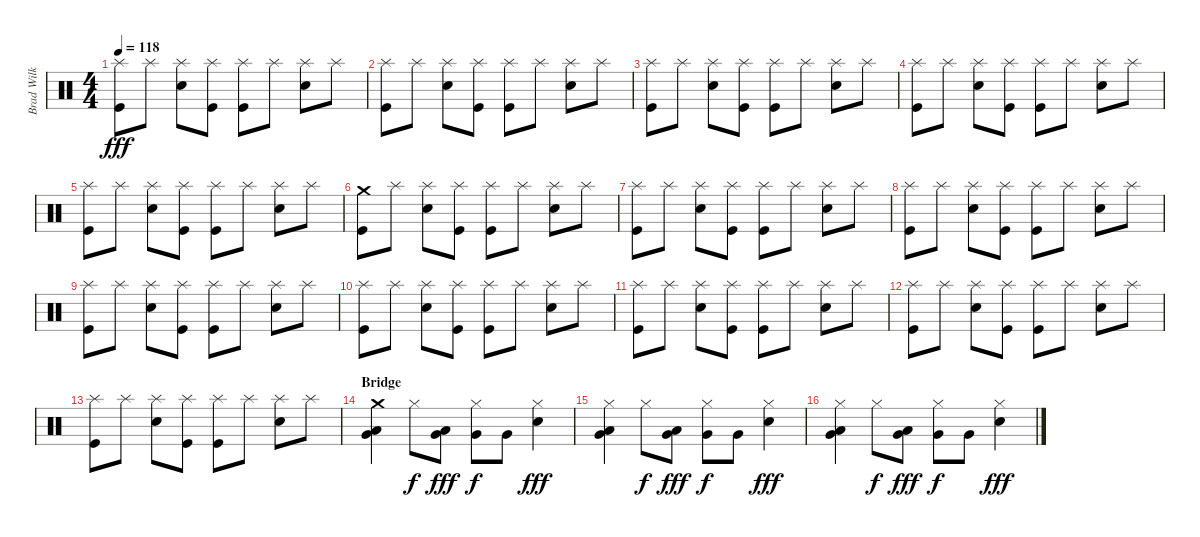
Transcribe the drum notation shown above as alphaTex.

\track ("Brad Wilk - Drums" "Brad Wilk ") {instrument percussion}
\staff {score}
\articulation defaults
\ts (4 4)
\tempo 118
\clef neutral
\ks c
("Splash (hit)" "Kick (hit)").8{dy fff} "Splash (hit)".8 ("Splash (hit)" "Snare (hit) 2").8 ("Splash (hit)" "Kick (hit)").8 ("Splash (hit)" "Kick (hit)").8 "Splash (hit)".8 ("Splash (hit)" "Snare (hit) 2").8 "Splash (hit)".8 |
("Splash (hit)" "Kick (hit)").8 "Splash (hit)".8 ("Splash (hit)" "Snare (hit) 2").8 ("Splash (hit)" "Kick (hit)").8 ("Splash (hit)" "Kick (hit)").8 "Splash (hit)".8 ("Splash (hit)" "Snare (hit) 2").8 "Splash (hit)".8 |
("Splash (hit)" "Kick (hit)").8 "Splash (hit)".8 ("Splash (hit)" "Snare (hit) 2").8 ("Splash (hit)" "Kick (hit)").8 ("Splash (hit)" "Kick (hit)").8 "Splash (hit)".8 ("Splash (hit)" "Snare (hit) 2").8 "Splash (hit)".8 |
("Splash (hit)" "Kick (hit)").8 "Splash (hit)".8 ("Splash (hit)" "Snare (hit) 2").8 ("Splash (hit)" "Kick (hit)").8 ("Splash (hit)" "Kick (hit)").8 "Splash (hit)".8 ("Splash (hit)" "Snare (hit) 2").8 "Splash (hit)".8 |
("Splash (hit)" "Kick (hit)").8 "Splash (hit)".8 ("Splash (hit)" "Snare (hit) 2").8 ("Splash (hit)" "Kick (hit)").8 ("Splash (hit)" "Kick (hit)").8 "Splash (hit)".8 ("Splash (hit)" "Snare (hit) 2").8 "Splash (hit)".8 |
("Crash medium (hit)" "Kick (hit)").8 "Splash (hit)".8 ("Splash (hit)" "Snare (hit) 2").8 ("Splash (hit)" "Kick (hit)").8 ("Splash (hit)" "Kick (hit)").8 "Splash (hit)".8 ("Splash (hit)" "Snare (hit) 2").8 "Splash (hit)".8 |
("Splash (hit)" "Kick (hit)").8 "Splash (hit)".8 ("Splash (hit)" "Snare (hit) 2").8 ("Splash (hit)" "Kick (hit)").8 ("Splash (hit)" "Kick (hit)").8 "Splash (hit)".8 ("Splash (hit)" "Snare (hit) 2").8 "Splash (hit)".8 |
("Splash (hit)" "Kick (hit)").8 "Splash (hit)".8 ("Splash (hit)" "Snare (hit) 2").8 ("Splash (hit)" "Kick (hit)").8 ("Splash (hit)" "Kick (hit)").8 "Splash (hit)".8 ("Splash (hit)" "Snare (hit) 2").8 "Splash (hit)".8 |
("Splash (hit)" "Kick (hit)").8 "Splash (hit)".8 ("Splash (hit)" "Snare (hit) 2").8 ("Splash (hit)" "Kick (hit)").8 ("Splash (hit)" "Kick (hit)").8 "Splash (hit)".8 ("Splash (hit)" "Snare (hit) 2").8 "Splash (hit)".8 |
("Splash (hit)" "Kick (hit)").8 "Splash (hit)".8 ("Splash (hit)" "Snare (hit) 2").8 ("Splash (hit)" "Kick (hit)").8 ("Splash (hit)" "Kick (hit)").8 "Splash (hit)".8 ("Splash (hit)" "Snare (hit) 2").8 "Splash (hit)".8 |
("Splash (hit)" "Kick (hit)").8 "Splash (hit)".8 ("Splash (hit)" "Snare (hit) 2").8 ("Splash (hit)" "Kick (hit)").8 ("Splash (hit)" "Kick (hit)").8 "Splash (hit)".8 ("Splash (hit)" "Snare (hit) 2").8 "Splash (hit)".8 |
("Splash (hit)" "Kick (hit)").8 "Splash (hit)".8 ("Splash (hit)" "Snare (hit) 2").8 ("Splash (hit)" "Kick (hit)").8 ("Splash (hit)" "Kick (hit)").8 "Splash (hit)".8 ("Splash (hit)" "Snare (hit) 2").8 "Splash (hit)".8 |
("Splash (hit)" "Kick (hit)").8 "Splash (hit)".8 ("Splash (hit)" "Snare (hit) 2").8 ("Splash (hit)" "Kick (hit)").8 ("Splash (hit)" "Kick (hit)").8 "Splash (hit)".8 ("Splash (hit)" "Snare (hit) 2").8 "Splash (hit)".8 |
\section ("" "Bridge")
("Crash medium (hit)" "Low Tom (hit)" "Very Low Tom (hit)").4 "Hi-Hat (closed)".8{dy f} ("Low Tom (hit)" "Very Low Tom (hit)").8{dy fff} ("Hi-Hat (closed)" "Very Low Tom (hit)").8{dy f} "Very Low Tom (hit)".8 ("Hi-Hat (closed)" "Snare (hit) 2").4{dy fff} |
("Hi-Hat (closed)" "Low Tom (hit)" "Very Low Tom (hit)").4 "Hi-Hat (closed)".8{dy f} ("Low Tom (hit)" "Very Low Tom (hit)").8{dy fff} ("Hi-Hat (closed)" "Very Low Tom (hit)").8{dy f} "Very Low Tom (hit)".8 ("Hi-Hat (closed)" "Snare (hit) 2").4{dy fff} |
("Hi-Hat (closed)" "Low Tom (hit)" "Very Low Tom (hit)").4 "Hi-Hat (closed)".8{dy f} ("Low Tom (hit)" "Very Low Tom (hit)").8{dy fff} ("Hi-Hat (closed)" "Very Low Tom (hit)").8{dy f} "Very Low Tom (hit)".8 ("Hi-Hat (closed)" "Snare (hit) 2").4{dy fff}
